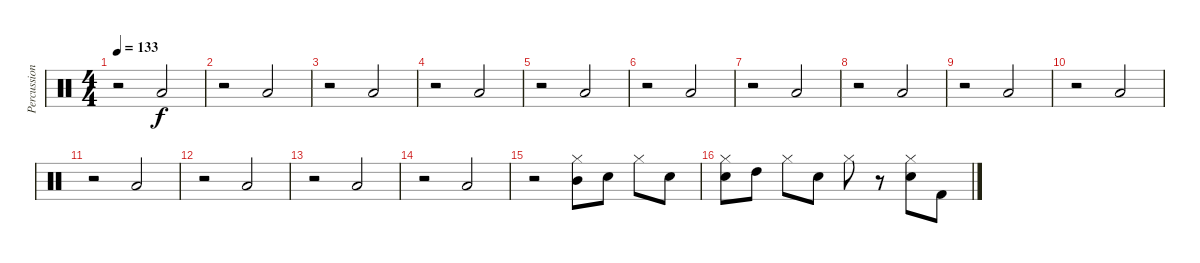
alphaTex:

\track ("Percussion" "Percussion") {instrument percussion}
\staff {score}
\articulation defaults
\ts (4 4)
\tempo 133
\clef neutral
\ks c
r.2{dy f} "Low Tom (hit)".2 |
r.2 "Low Tom (hit)".2 |
r.2 "Low Tom (hit)".2 |
r.2 "Low Tom (hit)".2 |
r.2 "Low Tom (hit)".2 |
r.2 "Low Tom (hit)".2 |
r.2 "Low Tom (hit)".2 |
r.2 "Low Tom (hit)".2 |
r.2 "Low Tom (hit)".2 |
r.2 "Low Tom (hit)".2 |
r.2 "Low Tom (hit)".2 |
r.2 "Low Tom (hit)".2 |
r.2 "Low Tom (hit)".2 |
r.2 "Low Tom (hit)".2 |
r.2{volume 13} ("Hi-Hat (closed)" "Mid Tom (hit)").8 "Snare (hit) 2".8 "Hi-Hat (closed)".8 "Snare (hit) 2".8 |
("Hi-Hat (closed)" "Snare (hit) 2").8 "High Tom (hit)".8 "Hi-Hat (closed)".8 "Snare (hit) 2".8 "Hi-Hat (closed)".8 r.8 ("Hi-Hat (closed)" "Snare (hit) 2").8 "Kick (hit) 2".8
